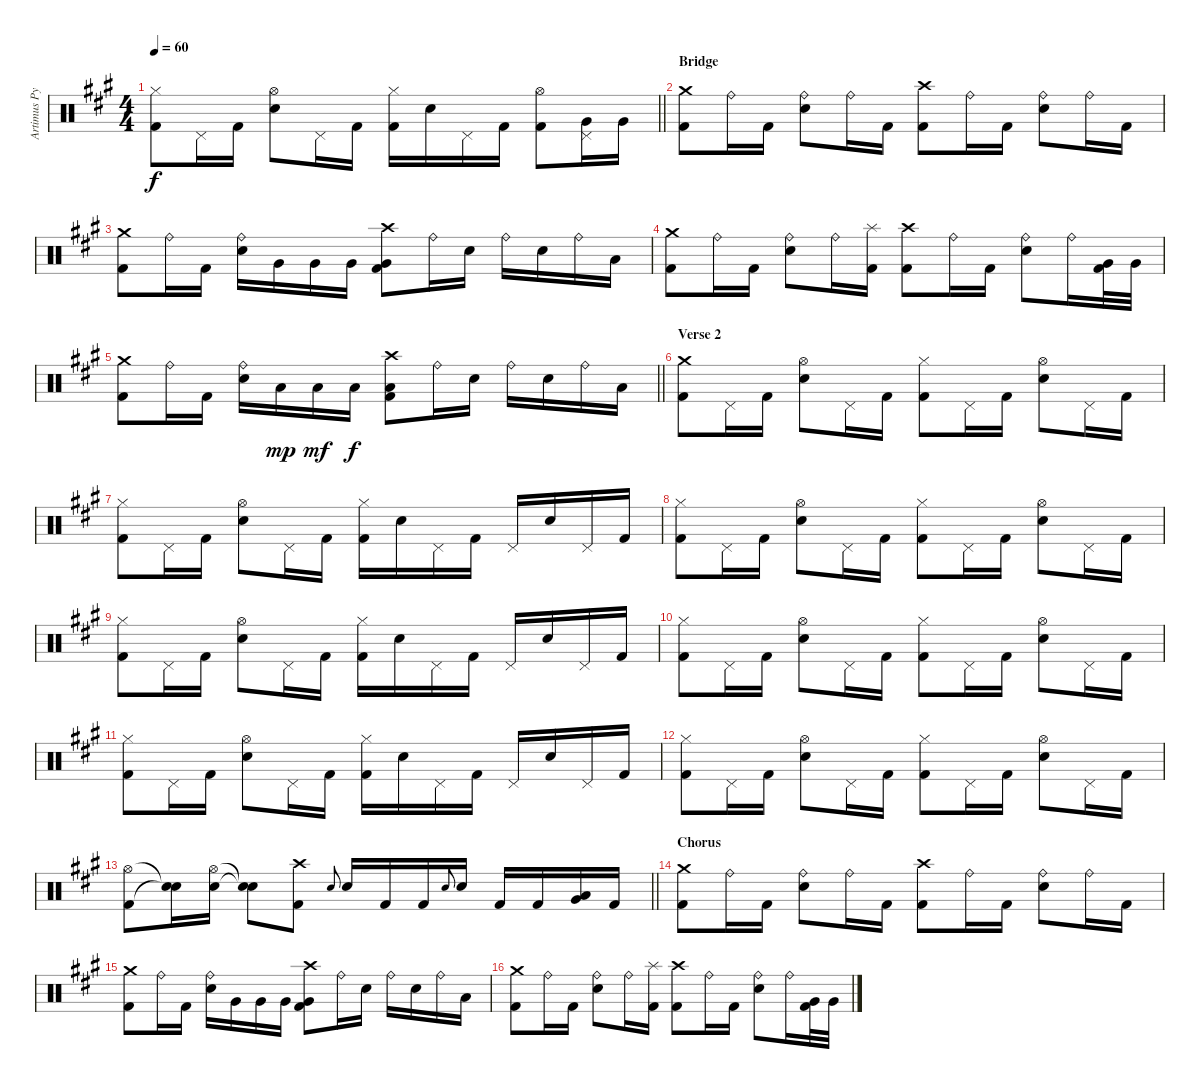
\track ("Artimus Pyle - Drums" "Artimus Py") {instrument percussion}
\staff {score}
\articulation defaults
\ts (4 4)
\tempo 60
\clef neutral
\barLineRight lightlight
\ks f#minor
("Hi-Hat (closed)" "Kick (hit) 2").8{dy f} "Pedal Hi-Hat (hit)".16 "Kick (hit) 2".16 ("Snare (hit) 2" "Hi-Hat (open)").8 "Pedal Hi-Hat (hit)".16 "Kick (hit) 2".16 ("Hi-Hat (closed)" "Kick (hit) 2").16 "Snare (hit) 2".16 "Pedal Hi-Hat (hit)".16 "Kick (hit) 2".16 ("Hi-Hat (open)" "Kick (hit) 2").8 ("Pedal Hi-Hat (hit)" "Very Low Tom (hit)").16 "Very Low Tom (hit)".16 |
\section ("" "Bridge")
("Crash medium (hit)" "Kick (hit) 2").8 "Ride (bell)".16 "Kick (hit) 2".16 ("Ride (bell)" "Snare (hit) 2").8 "Ride (bell)".16 "Kick (hit) 2".16 ("Crash high (hit)" "Kick (hit) 2").8 "Ride (bell)".16 "Kick (hit) 2".16 ("Ride (bell)" "Snare (hit) 2").8 "Ride (bell)".16 "Kick (hit) 2".16 |
("Crash medium (hit)" "Kick (hit) 2").8 "Ride (bell)".16 "Kick (hit) 2".16 ("Ride (bell)" "Snare (hit) 2").16 "Very Low Tom (hit)".16 "Very Low Tom (hit)".16 "Very Low Tom (hit)".16 ("Crash high (hit)" "Very Low Tom (hit)" "Kick (hit) 2").8 "Ride (bell)".16 "Snare (hit) 2".16 "Ride (bell)".16 "Snare (hit) 2".16 "Ride (bell)".16 "Low Floor Tom (hit)".16 |
("Crash medium (hit)" "Kick (hit) 2").8 "Ride (bell)".16 "Kick (hit) 2".16 ("Ride (bell)" "Snare (hit) 2").8 "Ride (bell)".16 ("Splash (hit)" "Kick (hit) 2").16 ("Crash high (hit)" "Kick (hit) 2").8 "Ride (bell)".16 "Kick (hit) 2".16 ("Ride (bell)" "Snare (hit) 2").8 "Ride (bell)".16 ("Very Low Tom (hit)" "Kick (hit) 2").32 "Very Low Tom (hit)".32 |
\barLineRight lightlight
("Crash medium (hit)" "Kick (hit) 2").8 "Ride (bell)".16 "Kick (hit) 2".16 ("Ride (bell)" "Snare (hit) 2").16 "Low Floor Tom (hit)".16{dy mp} "Low Floor Tom (hit)".16{dy mf} "Low Floor Tom (hit)".16{dy f} ("Crash high (hit)" "Low Floor Tom (hit)" "Kick (hit) 2").8 "Ride (bell)".16 "Snare (hit) 2".16 "Ride (bell)".16 "Snare (hit) 2".16 "Ride (bell)".16 "Low Floor Tom (hit)".16 |
\section ("" "Verse 2")
("Crash medium (hit)" "Kick (hit) 2").8 "Pedal Hi-Hat (hit)".16 "Kick (hit) 2".16 ("Snare (hit) 2" "Hi-Hat (open)").8 "Pedal Hi-Hat (hit)".16 "Kick (hit) 2".16 ("Hi-Hat (closed)" "Kick (hit) 2").8 "Pedal Hi-Hat (hit)".16 "Kick (hit) 2".16 ("Snare (hit) 2" "Hi-Hat (open)").8 "Pedal Hi-Hat (hit)".16 "Kick (hit) 2".16 |
("Hi-Hat (closed)" "Kick (hit) 2").8 "Pedal Hi-Hat (hit)".16 "Kick (hit) 2".16 ("Snare (hit) 2" "Hi-Hat (open)").8 "Pedal Hi-Hat (hit)".16 "Kick (hit) 2".16 ("Hi-Hat (closed)" "Kick (hit) 2").16 "Snare (hit) 2".16 "Pedal Hi-Hat (hit)".16 "Kick (hit) 2".16 "Pedal Hi-Hat (hit)".16 "Snare (hit) 2".16 "Pedal Hi-Hat (hit)".16 "Kick (hit) 2".16 |
("Hi-Hat (closed)" "Kick (hit) 2").8 "Pedal Hi-Hat (hit)".16 "Kick (hit) 2".16 ("Snare (hit) 2" "Hi-Hat (open)").8 "Pedal Hi-Hat (hit)".16 "Kick (hit) 2".16 ("Hi-Hat (closed)" "Kick (hit) 2").8 "Pedal Hi-Hat (hit)".16 "Kick (hit) 2".16 ("Snare (hit) 2" "Hi-Hat (open)").8 "Pedal Hi-Hat (hit)".16 "Kick (hit) 2".16 |
("Hi-Hat (closed)" "Kick (hit) 2").8 "Pedal Hi-Hat (hit)".16 "Kick (hit) 2".16 ("Snare (hit) 2" "Hi-Hat (open)").8 "Pedal Hi-Hat (hit)".16 "Kick (hit) 2".16 ("Hi-Hat (closed)" "Kick (hit) 2").16 "Snare (hit) 2".16 "Pedal Hi-Hat (hit)".16 "Kick (hit) 2".16 "Pedal Hi-Hat (hit)".16 "Snare (hit) 2".16 "Pedal Hi-Hat (hit)".16 "Kick (hit) 2".16 |
("Hi-Hat (closed)" "Kick (hit) 2").8 "Pedal Hi-Hat (hit)".16 "Kick (hit) 2".16 ("Snare (hit) 2" "Hi-Hat (open)").8 "Pedal Hi-Hat (hit)".16 "Kick (hit) 2".16 ("Hi-Hat (closed)" "Kick (hit) 2").8 "Pedal Hi-Hat (hit)".16 "Kick (hit) 2".16 ("Snare (hit) 2" "Hi-Hat (open)").8 "Pedal Hi-Hat (hit)".16 "Kick (hit) 2".16 |
("Hi-Hat (closed)" "Kick (hit) 2").8 "Pedal Hi-Hat (hit)".16 "Kick (hit) 2".16 ("Snare (hit) 2" "Hi-Hat (open)").8 "Pedal Hi-Hat (hit)".16 "Kick (hit) 2".16 ("Hi-Hat (closed)" "Kick (hit) 2").16 "Snare (hit) 2".16 "Pedal Hi-Hat (hit)".16 "Kick (hit) 2".16 "Pedal Hi-Hat (hit)".16 "Snare (hit) 2".16 "Pedal Hi-Hat (hit)".16 "Kick (hit) 2".16 |
("Hi-Hat (closed)" "Kick (hit) 2").8 "Pedal Hi-Hat (hit)".16 "Kick (hit) 2".16 ("Snare (hit) 2" "Hi-Hat (open)").8 "Pedal Hi-Hat (hit)".16 "Kick (hit) 2".16 ("Hi-Hat (closed)" "Kick (hit) 2").8 "Pedal Hi-Hat (hit)".16 "Kick (hit) 2".16 ("Snare (hit) 2" "Hi-Hat (open)").8 "Pedal Hi-Hat (hit)".16 "Kick (hit) 2".16 |
\barLineRight lightlight
("Hi-Hat (open)" "Kick (hit) 2").8 ("Snare (hit)"{t} "Snare (hit)"{t}).16 ("Snare (hit) 2" "Hi-Hat (open)").16 ("Snare (hit)"{t} "Snare (hit)"{t}).8 ("Crash high (hit)" "Kick (hit) 2").8 "Snare (hit) 2".8{gr onbeat} "Snare (hit) 2".16 "Kick (hit) 2".16 "Kick (hit) 2".16 "Snare (hit) 2".8{gr onbeat} "Snare (hit) 2".16 "Kick (hit) 2".16 "Kick (hit) 2".16 ("Very Low Tom (hit)" "Low Floor Tom (hit)").16 "Kick (hit) 2".16 |
\section ("" "Chorus")
("Crash medium (hit)" "Kick (hit) 2").8 "Ride (bell)".16 "Kick (hit) 2".16 ("Ride (bell)" "Snare (hit) 2").8 "Ride (bell)".16 "Kick (hit) 2".16 ("Crash high (hit)" "Kick (hit) 2").8 "Ride (bell)".16 "Kick (hit) 2".16 ("Ride (bell)" "Snare (hit) 2").8 "Ride (bell)".16 "Kick (hit) 2".16 |
("Crash medium (hit)" "Kick (hit) 2").8 "Ride (bell)".16 "Kick (hit) 2".16 ("Ride (bell)" "Snare (hit) 2").16 "Very Low Tom (hit)".16 "Very Low Tom (hit)".16 "Very Low Tom (hit)".16 ("Crash high (hit)" "Very Low Tom (hit)" "Kick (hit) 2").8 "Ride (bell)".16 "Snare (hit) 2".16 "Ride (bell)".16 "Snare (hit) 2".16 "Ride (bell)".16 "Low Floor Tom (hit)".16 |
("Crash medium (hit)" "Kick (hit) 2").8 "Ride (bell)".16 "Kick (hit) 2".16 ("Ride (bell)" "Snare (hit) 2").8 "Ride (bell)".16 ("Splash (hit)" "Kick (hit) 2").16 ("Crash high (hit)" "Kick (hit) 2").8 "Ride (bell)".16 "Kick (hit) 2".16 ("Ride (bell)" "Snare (hit) 2").8 "Ride (bell)".16 ("Very Low Tom (hit)" "Kick (hit) 2").32 "Very Low Tom (hit)".32
